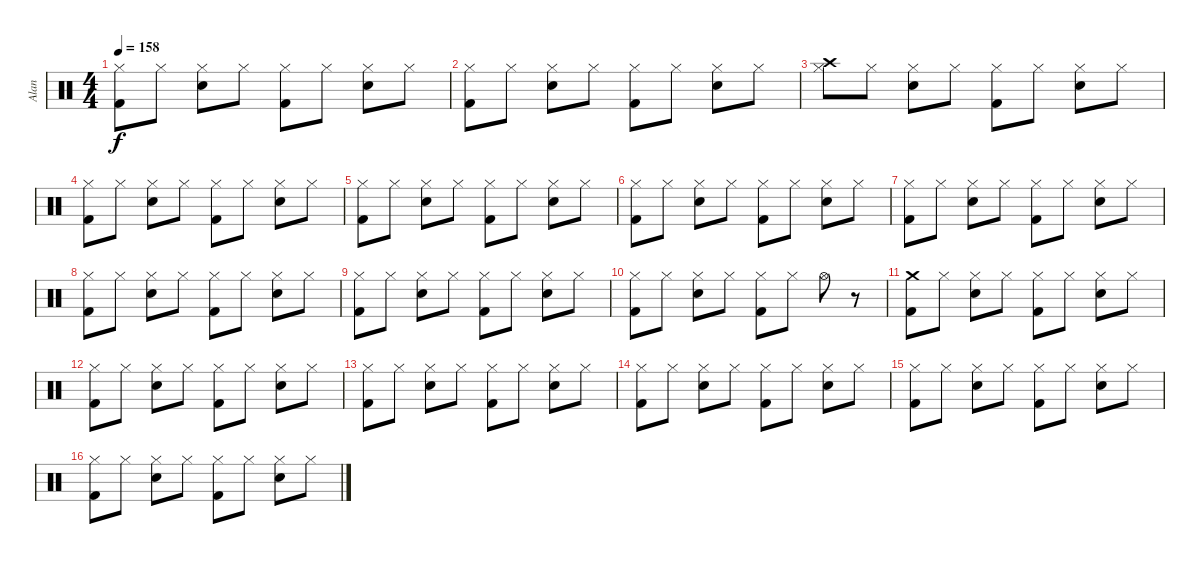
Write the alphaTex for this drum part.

\track ("Alan" "Alan") {instrument percussion}
\staff {score}
\articulation defaults
\ts (4 4)
\tempo 158
\clef neutral
\ks c
("Kick (hit) 2" "Hi-Hat (closed)").8{dy f} "Hi-Hat (closed)".8 ("Hi-Hat (closed)" "Electric Snare (hit)").8 "Hi-Hat (closed)".8 ("Kick (hit) 2" "Hi-Hat (closed)").8 "Hi-Hat (closed)".8 ("Hi-Hat (closed)" "Electric Snare (hit)").8 "Hi-Hat (closed)".8 |
("Kick (hit) 2" "Hi-Hat (closed)").8 "Hi-Hat (closed)".8 ("Hi-Hat (closed)" "Electric Snare (hit)").8 "Hi-Hat (closed)".8 ("Kick (hit) 2" "Hi-Hat (closed)").8 "Hi-Hat (closed)".8 ("Hi-Hat (closed)" "Electric Snare (hit)").8 "Hi-Hat (closed)".8 |
("Crash high (hit)" "Hi-Hat (closed)").8 "Hi-Hat (closed)".8 ("Hi-Hat (closed)" "Electric Snare (hit)").8 "Hi-Hat (closed)".8 ("Kick (hit) 2" "Hi-Hat (closed)").8 "Hi-Hat (closed)".8 ("Hi-Hat (closed)" "Electric Snare (hit)").8 "Hi-Hat (closed)".8 |
("Kick (hit) 2" "Hi-Hat (closed)").8 "Hi-Hat (closed)".8 ("Hi-Hat (closed)" "Electric Snare (hit)").8 "Hi-Hat (closed)".8 ("Kick (hit) 2" "Hi-Hat (closed)").8 "Hi-Hat (closed)".8 ("Hi-Hat (closed)" "Electric Snare (hit)").8 "Hi-Hat (closed)".8 |
("Kick (hit) 2" "Hi-Hat (closed)").8 "Hi-Hat (closed)".8 ("Hi-Hat (closed)" "Electric Snare (hit)").8 "Hi-Hat (closed)".8 ("Kick (hit) 2" "Hi-Hat (closed)").8 "Hi-Hat (closed)".8 ("Hi-Hat (closed)" "Electric Snare (hit)").8 "Hi-Hat (closed)".8 |
("Kick (hit) 2" "Hi-Hat (closed)").8 "Hi-Hat (closed)".8 ("Hi-Hat (closed)" "Electric Snare (hit)").8 "Hi-Hat (closed)".8 ("Kick (hit) 2" "Hi-Hat (closed)").8 "Hi-Hat (closed)".8 ("Hi-Hat (closed)" "Electric Snare (hit)").8 "Hi-Hat (closed)".8 |
("Kick (hit) 2" "Hi-Hat (closed)").8 "Hi-Hat (closed)".8 ("Hi-Hat (closed)" "Electric Snare (hit)").8 "Hi-Hat (closed)".8 ("Kick (hit) 2" "Hi-Hat (closed)").8 "Hi-Hat (closed)".8 ("Hi-Hat (closed)" "Electric Snare (hit)").8 "Hi-Hat (closed)".8 |
("Kick (hit) 2" "Hi-Hat (closed)").8 "Hi-Hat (closed)".8 ("Hi-Hat (closed)" "Electric Snare (hit)").8 "Hi-Hat (closed)".8 ("Kick (hit) 2" "Hi-Hat (closed)").8 "Hi-Hat (closed)".8 ("Hi-Hat (closed)" "Electric Snare (hit)").8 "Hi-Hat (closed)".8 |
("Kick (hit) 2" "Hi-Hat (closed)").8 "Hi-Hat (closed)".8 ("Hi-Hat (closed)" "Electric Snare (hit)").8 "Hi-Hat (closed)".8 ("Kick (hit) 2" "Hi-Hat (closed)").8 "Hi-Hat (closed)".8 ("Hi-Hat (closed)" "Electric Snare (hit)").8 "Hi-Hat (closed)".8 |
("Kick (hit) 2" "Hi-Hat (closed)").8 "Hi-Hat (closed)".8 ("Hi-Hat (closed)" "Electric Snare (hit)").8 "Hi-Hat (closed)".8 ("Kick (hit) 2" "Hi-Hat (closed)").8 "Hi-Hat (closed)".8 "Hi-Hat (open)".8 r.8 |
("Kick (hit) 2" "Crash medium (hit)").8 "Hi-Hat (closed)".8 ("Hi-Hat (closed)" "Electric Snare (hit)").8 "Hi-Hat (closed)".8 ("Kick (hit) 2" "Hi-Hat (closed)").8 "Hi-Hat (closed)".8 ("Hi-Hat (closed)" "Electric Snare (hit)").8 "Hi-Hat (closed)".8 |
("Kick (hit) 2" "Hi-Hat (closed)").8 "Hi-Hat (closed)".8 ("Hi-Hat (closed)" "Electric Snare (hit)").8 "Hi-Hat (closed)".8 ("Kick (hit) 2" "Hi-Hat (closed)").8 "Hi-Hat (closed)".8 ("Hi-Hat (closed)" "Electric Snare (hit)").8 "Hi-Hat (closed)".8 |
("Kick (hit) 2" "Hi-Hat (closed)").8 "Hi-Hat (closed)".8 ("Hi-Hat (closed)" "Electric Snare (hit)").8 "Hi-Hat (closed)".8 ("Kick (hit) 2" "Hi-Hat (closed)").8 "Hi-Hat (closed)".8 ("Hi-Hat (closed)" "Electric Snare (hit)").8 "Hi-Hat (closed)".8 |
("Kick (hit) 2" "Hi-Hat (closed)").8 "Hi-Hat (closed)".8 ("Hi-Hat (closed)" "Electric Snare (hit)").8 "Hi-Hat (closed)".8 ("Kick (hit) 2" "Hi-Hat (closed)").8 "Hi-Hat (closed)".8 ("Hi-Hat (closed)" "Electric Snare (hit)").8 "Hi-Hat (closed)".8 |
("Kick (hit) 2" "Hi-Hat (closed)").8 "Hi-Hat (closed)".8 ("Hi-Hat (closed)" "Electric Snare (hit)").8 "Hi-Hat (closed)".8 ("Kick (hit) 2" "Hi-Hat (closed)").8 "Hi-Hat (closed)".8 ("Hi-Hat (closed)" "Electric Snare (hit)").8 "Hi-Hat (closed)".8 |
("Kick (hit) 2" "Hi-Hat (closed)").8 "Hi-Hat (closed)".8 ("Hi-Hat (closed)" "Electric Snare (hit)").8 "Hi-Hat (closed)".8 ("Kick (hit) 2" "Hi-Hat (closed)").8 "Hi-Hat (closed)".8 ("Hi-Hat (closed)" "Electric Snare (hit)").8 "Hi-Hat (closed)".8
